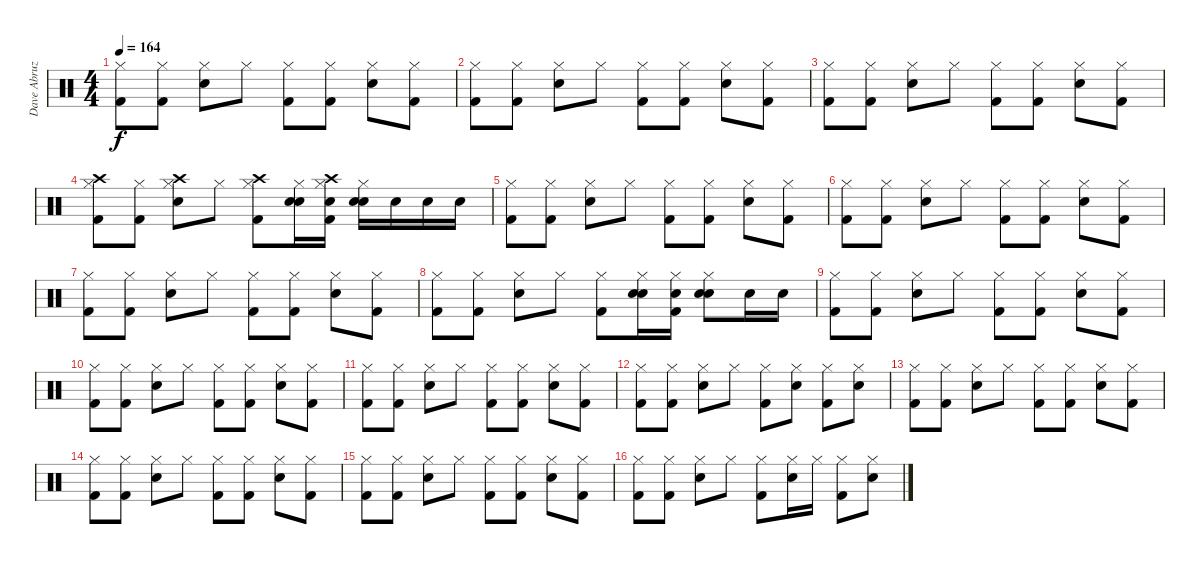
\track ("Dave Abruzzese" "Dave Abruz") {instrument percussion}
\staff {score}
\articulation defaults
\ts (4 4)
\tempo 164
\clef neutral
\ks c
("Kick (hit) 2" "Hi-Hat (closed)").8{dy f} ("Kick (hit) 2" "Hi-Hat (closed)").8 ("Snare (hit) 2" "Hi-Hat (closed)").8 "Hi-Hat (closed)".8 ("Kick (hit) 2" "Hi-Hat (closed)").8 ("Kick (hit) 2" "Hi-Hat (closed)").8 ("Snare (hit) 2" "Hi-Hat (closed)").8 ("Kick (hit) 2" "Hi-Hat (closed)").8 |
("Kick (hit) 2" "Hi-Hat (closed)").8 ("Kick (hit) 2" "Hi-Hat (closed)").8 ("Snare (hit) 2" "Hi-Hat (closed)").8 "Hi-Hat (closed)".8 ("Kick (hit) 2" "Hi-Hat (closed)").8 ("Kick (hit) 2" "Hi-Hat (closed)").8 ("Snare (hit) 2" "Hi-Hat (closed)").8 ("Kick (hit) 2" "Hi-Hat (closed)").8 |
("Kick (hit) 2" "Hi-Hat (closed)").8 ("Kick (hit) 2" "Hi-Hat (closed)").8 ("Snare (hit) 2" "Hi-Hat (closed)").8 "Hi-Hat (closed)".8 ("Kick (hit) 2" "Hi-Hat (closed)").8 ("Kick (hit) 2" "Hi-Hat (closed)").8 ("Snare (hit) 2" "Hi-Hat (closed)").8 ("Kick (hit) 2" "Hi-Hat (closed)").8 |
("Crash high (hit)" "Kick (hit) 2" "Hi-Hat (closed)").8 ("Kick (hit) 2" "Hi-Hat (closed)").8 ("Crash high (hit)" "Snare (hit) 2" "Hi-Hat (closed)").8 "Hi-Hat (closed)".8 ("Crash high (hit)" "Kick (hit) 2" "Hi-Hat (closed)").8 ("Snare (hit) 2" "Snare (hit) 2" "Hi-Hat (closed)").16 ("Snare (hit) 2" "Crash high (hit)" "Kick (hit) 2" "Hi-Hat (closed)").16 ("Snare (hit) 2" "Snare (hit) 2" "Hi-Hat (closed)").16 "Snare (hit) 2".16 "Snare (hit) 2".16 "Snare (hit) 2".16 |
("Kick (hit) 2" "Hi-Hat (closed)").8 ("Kick (hit) 2" "Hi-Hat (closed)").8 ("Snare (hit) 2" "Hi-Hat (closed)").8 "Hi-Hat (closed)".8 ("Kick (hit) 2" "Hi-Hat (closed)").8 ("Kick (hit) 2" "Hi-Hat (closed)").8 ("Snare (hit) 2" "Hi-Hat (closed)").8 ("Kick (hit) 2" "Hi-Hat (closed)").8 |
("Kick (hit) 2" "Hi-Hat (closed)").8 ("Kick (hit) 2" "Hi-Hat (closed)").8 ("Snare (hit) 2" "Hi-Hat (closed)").8 "Hi-Hat (closed)".8 ("Kick (hit) 2" "Hi-Hat (closed)").8 ("Kick (hit) 2" "Hi-Hat (closed)").8 ("Snare (hit) 2" "Hi-Hat (closed)").8 ("Kick (hit) 2" "Hi-Hat (closed)").8 |
("Kick (hit) 2" "Hi-Hat (closed)").8 ("Kick (hit) 2" "Hi-Hat (closed)").8 ("Snare (hit) 2" "Hi-Hat (closed)").8 "Hi-Hat (closed)".8 ("Kick (hit) 2" "Hi-Hat (closed)").8 ("Kick (hit) 2" "Hi-Hat (closed)").8 ("Snare (hit) 2" "Hi-Hat (closed)").8 ("Kick (hit) 2" "Hi-Hat (closed)").8 |
("Kick (hit) 2" "Hi-Hat (closed)").8 ("Kick (hit) 2" "Hi-Hat (closed)").8 ("Snare (hit) 2" "Hi-Hat (closed)").8 "Hi-Hat (closed)".8 ("Kick (hit) 2" "Hi-Hat (closed)").8 ("Snare (hit) 2" "Snare (hit) 2" "Hi-Hat (closed)").16 ("Snare (hit) 2" "Kick (hit) 2" "Hi-Hat (closed)").16 ("Snare (hit) 2" "Snare (hit) 2" "Hi-Hat (closed)").8 "Snare (hit) 2".16 "Snare (hit) 2".16 |
("Kick (hit) 2" "Hi-Hat (closed)").8 ("Kick (hit) 2" "Hi-Hat (closed)").8 ("Snare (hit) 2" "Hi-Hat (closed)").8 "Hi-Hat (closed)".8 ("Kick (hit) 2" "Hi-Hat (closed)").8 ("Kick (hit) 2" "Hi-Hat (closed)").8 ("Snare (hit) 2" "Hi-Hat (closed)").8 ("Kick (hit) 2" "Hi-Hat (closed)").8 |
("Kick (hit) 2" "Hi-Hat (closed)").8 ("Kick (hit) 2" "Hi-Hat (closed)").8 ("Snare (hit) 2" "Hi-Hat (closed)").8 "Hi-Hat (closed)".8 ("Kick (hit) 2" "Hi-Hat (closed)").8 ("Kick (hit) 2" "Hi-Hat (closed)").8 ("Snare (hit) 2" "Hi-Hat (closed)").8 ("Kick (hit) 2" "Hi-Hat (closed)").8 |
("Kick (hit) 2" "Hi-Hat (closed)").8 ("Kick (hit) 2" "Hi-Hat (closed)").8 ("Snare (hit) 2" "Hi-Hat (closed)").8 "Hi-Hat (closed)".8 ("Kick (hit) 2" "Hi-Hat (closed)").8 ("Kick (hit) 2" "Hi-Hat (closed)").8 ("Snare (hit) 2" "Hi-Hat (closed)").8 ("Kick (hit) 2" "Hi-Hat (closed)").8 |
("Kick (hit) 2" "Hi-Hat (closed)").8 ("Kick (hit) 2" "Hi-Hat (closed)").8 ("Snare (hit) 2" "Hi-Hat (closed)").8 "Hi-Hat (closed)".8 ("Kick (hit) 2" "Hi-Hat (closed)").8 ("Snare (hit) 2" "Hi-Hat (closed)").8 ("Kick (hit) 2" "Hi-Hat (closed)").8 ("Snare (hit) 2" "Hi-Hat (closed)").8 |
("Kick (hit) 2" "Hi-Hat (closed)").8 ("Kick (hit) 2" "Hi-Hat (closed)").8 ("Snare (hit) 2" "Hi-Hat (closed)").8 "Hi-Hat (closed)".8 ("Kick (hit) 2" "Hi-Hat (closed)").8 ("Kick (hit) 2" "Hi-Hat (closed)").8 ("Snare (hit) 2" "Hi-Hat (closed)").8 ("Kick (hit) 2" "Hi-Hat (closed)").8 |
("Kick (hit) 2" "Hi-Hat (closed)").8 ("Kick (hit) 2" "Hi-Hat (closed)").8 ("Snare (hit) 2" "Hi-Hat (closed)").8 "Hi-Hat (closed)".8 ("Kick (hit) 2" "Hi-Hat (closed)").8 ("Kick (hit) 2" "Hi-Hat (closed)").8 ("Snare (hit) 2" "Hi-Hat (closed)").8 ("Kick (hit) 2" "Hi-Hat (closed)").8 |
("Kick (hit) 2" "Hi-Hat (closed)").8 ("Kick (hit) 2" "Hi-Hat (closed)").8 ("Snare (hit) 2" "Hi-Hat (closed)").8 "Hi-Hat (closed)".8 ("Kick (hit) 2" "Hi-Hat (closed)").8 ("Kick (hit) 2" "Hi-Hat (closed)").8 ("Snare (hit) 2" "Hi-Hat (closed)").8 ("Kick (hit) 2" "Hi-Hat (closed)").8 |
("Kick (hit) 2" "Hi-Hat (closed)").8 ("Kick (hit) 2" "Hi-Hat (closed)").8 ("Snare (hit) 2" "Hi-Hat (closed)").8 "Hi-Hat (closed)".8 ("Kick (hit) 2" "Hi-Hat (closed)").8 ("Snare (hit) 2" "Hi-Hat (closed)").16 "Hi-Hat (closed)".16 ("Kick (hit) 2" "Hi-Hat (closed)").8 ("Snare (hit) 2" "Hi-Hat (closed)").8
